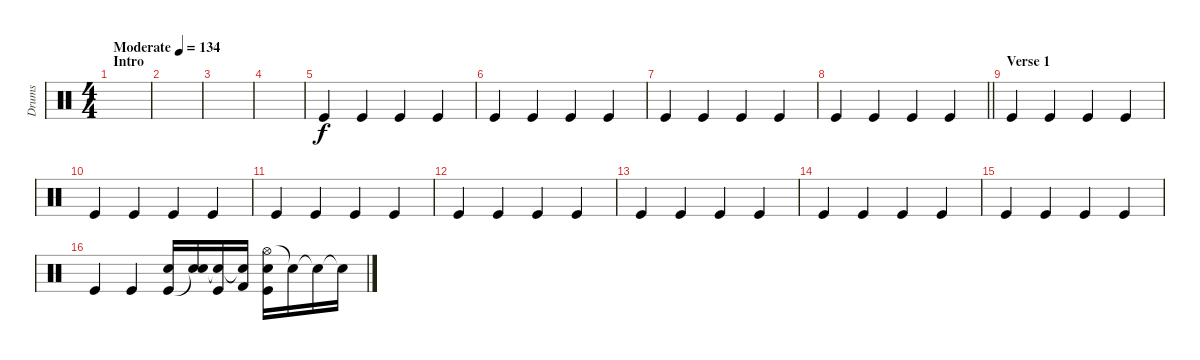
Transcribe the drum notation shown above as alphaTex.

\track ("Drums" "Drums") {instrument percussion}
\staff {score}
\articulation defaults
\ts (4 4)
\section ("" "Intro")
\tempo (134 "Moderate")
\clef neutral
\ks c
|
|
|
|
"Kick (hit)".4 "Kick (hit)".4 "Kick (hit)".4 "Kick (hit)".4 |
"Kick (hit)".4 "Kick (hit)".4 "Kick (hit)".4 "Kick (hit)".4 |
"Kick (hit)".4 "Kick (hit)".4 "Kick (hit)".4 "Kick (hit)".4 |
\barLineRight lightlight "Kick (hit)".4 "Kick (hit)".4 "Kick (hit)".4 "Kick (hit)".4
|
\section ("" "Verse 1")
"Kick (hit)".4 "Kick (hit)".4 "Kick (hit)".4 "Kick (hit)".4 |
"Kick (hit)".4 "Kick (hit)".4 "Kick (hit)".4 "Kick (hit)".4 |
"Kick (hit)".4 "Kick (hit)".4 "Kick (hit)".4 "Kick (hit)".4 |
"Kick (hit)".4 "Kick (hit)".4 "Kick (hit)".4 "Kick (hit)".4 |
"Kick (hit)".4 "Kick (hit)".4 "Kick (hit)".4 "Kick (hit)".4 |
"Kick (hit)".4 "Kick (hit)".4 "Kick (hit)".4 "Kick (hit)".4 |
"Kick (hit)".4 "Kick (hit)".4 "Kick (hit)".4 "Kick (hit)".4 |
"Kick (hit)".4 "Kick (hit)".4 ("Kick (hit)" "Snare (hit) 2").16 ("Snare (hit)"{t} "Snare (hit) 2").16 ("Snare (hit)"{t} "Kick (hit)").16 ("Snare (hit)"{t} "Kick (hit) 2").16 ("Hi-Hat (open)" "Kick (hit)" "Snare (hit) 2").16 "Snare (hit)"{t}.16 "Snare (hit)"{t}.16 "Snare (hit)"{t}.16
